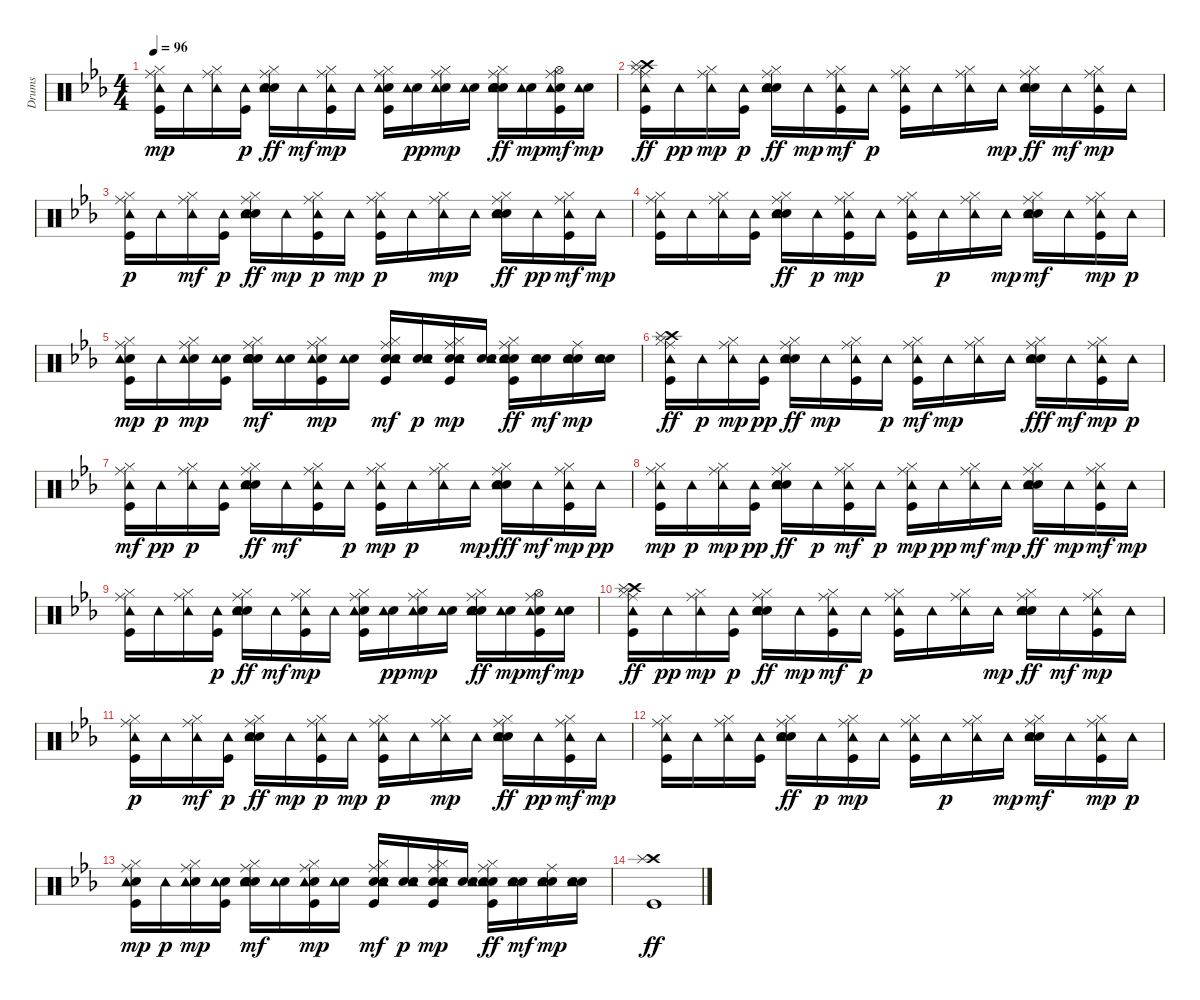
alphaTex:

\track ("Drums" "Drums") {instrument percussion}
\staff {score}
\articulation defaults
\ts (4 4)
\tempo 96
\clef neutral
\ks eb
("Kick (hit)" "Hi-Hat (closed)" "Ride (middle)" "Tambourine (hit)").16{dy mp} "Tambourine (hit)".16 ("Hi-Hat (closed)" "Ride (middle)" "Tambourine (hit)").16 ("Kick (hit)" "Tambourine (hit)").16{dy p} ("Snare (hit) 2" "Hand Clap (hit)" "Hi-Hat (closed)" "Ride (middle)" "Tambourine (hit)").16{dy ff} "Tambourine (hit)".16{dy mf} ("Kick (hit)" "Hi-Hat (closed)" "Ride (middle)" "Tambourine (hit)").16{dy mp} "Tambourine (hit)".16 ("Kick (hit)" "Electric Snare (hit)" "Hi-Hat (closed)" "Ride (middle)" "Tambourine (hit)").16 ("Electric Snare (hit)" "Tambourine (hit)").16{dy pp} ("Electric Snare (hit)" "Hi-Hat (closed)" "Ride (middle)" "Tambourine (hit)").16{dy mp} ("Electric Snare (hit)" "Tambourine (hit)").16 ("Snare (hit) 2" "Hand Clap (hit)" "Electric Snare (hit)" "Hi-Hat (closed)" "Ride (middle)" "Tambourine (hit)").16{dy ff} ("Electric Snare (hit)" "Tambourine (hit)").16{dy mp} ("Kick (hit)" "Electric Snare (hit)" "Hi-Hat (open)" "Ride (middle)" "Tambourine (hit)").16{dy mf} ("Electric Snare (hit)" "Tambourine (hit)").16{dy mp} |
("Kick (hit)" "Hi-Hat (closed)" "Crash high (hit)" "Ride (middle)" "Tambourine (hit)" "Splash (hit)").16{dy ff} "Tambourine (hit)".16{dy pp} ("Hi-Hat (closed)" "Ride (middle)" "Tambourine (hit)").16{dy mp} ("Kick (hit)" "Tambourine (hit)").16{dy p} ("Snare (hit) 2" "Hand Clap (hit)" "Hi-Hat (closed)" "Ride (middle)" "Tambourine (hit)").16{dy ff} "Tambourine (hit)".16{dy mp} ("Kick (hit)" "Hi-Hat (closed)" "Ride (middle)" "Tambourine (hit)").16{dy mf} "Tambourine (hit)".16{dy p} ("Kick (hit)" "Hi-Hat (closed)" "Ride (middle)" "Tambourine (hit)").16 "Tambourine (hit)".16 ("Hi-Hat (closed)" "Ride (middle)" "Tambourine (hit)").16 "Tambourine (hit)".16{dy mp} ("Snare (hit) 2" "Hand Clap (hit)" "Hi-Hat (closed)" "Ride (middle)" "Tambourine (hit)").16{dy ff} "Tambourine (hit)".16{dy mf} ("Kick (hit)" "Hi-Hat (closed)" "Ride (middle)" "Tambourine (hit)").16{dy mp} "Tambourine (hit)".16 |
("Kick (hit)" "Hi-Hat (closed)" "Ride (middle)" "Tambourine (hit)").16{dy p} "Tambourine (hit)".16 ("Hi-Hat (closed)" "Ride (middle)" "Tambourine (hit)").16{dy mf} ("Kick (hit)" "Tambourine (hit)").16{dy p} ("Snare (hit) 2" "Hand Clap (hit)" "Hi-Hat (closed)" "Ride (middle)" "Tambourine (hit)").16{dy ff} "Tambourine (hit)".16{dy mp} ("Kick (hit)" "Hi-Hat (closed)" "Ride (middle)" "Tambourine (hit)").16{dy p} "Tambourine (hit)".16{dy mp} ("Kick (hit)" "Hi-Hat (closed)" "Ride (middle)" "Tambourine (hit)").16{dy p} "Tambourine (hit)".16 ("Hi-Hat (closed)" "Ride (middle)" "Tambourine (hit)").16{dy mp} "Tambourine (hit)".16 ("Snare (hit) 2" "Hand Clap (hit)" "Hi-Hat (closed)" "Ride (middle)" "Tambourine (hit)").16{dy ff} "Tambourine (hit)".16{dy pp} ("Kick (hit)" "Hi-Hat (closed)" "Ride (middle)" "Tambourine (hit)").16{dy mf} "Tambourine (hit)".16{dy mp} |
("Kick (hit)" "Hi-Hat (closed)" "Ride (middle)" "Tambourine (hit)").16 "Tambourine (hit)".16 ("Hi-Hat (closed)" "Ride (middle)" "Tambourine (hit)").16 ("Kick (hit)" "Tambourine (hit)").16 ("Snare (hit) 2" "Hand Clap (hit)" "Hi-Hat (closed)" "Ride (middle)" "Tambourine (hit)").16{dy ff} "Tambourine (hit)".16{dy p} ("Kick (hit)" "Hi-Hat (closed)" "Ride (middle)" "Tambourine (hit)").16{dy mp} "Tambourine (hit)".16 ("Kick (hit)" "Hi-Hat (closed)" "Ride (middle)" "Tambourine (hit)").16 "Tambourine (hit)".16{dy p} ("Hi-Hat (closed)" "Ride (middle)" "Tambourine (hit)").16 "Tambourine (hit)".16{dy mp} ("Snare (hit) 2" "Hand Clap (hit)" "Hi-Hat (closed)" "Ride (middle)" "Tambourine (hit)").16{dy mf} "Tambourine (hit)".16 ("Kick (hit)" "Hi-Hat (closed)" "Ride (middle)" "Tambourine (hit)").16{dy mp} "Tambourine (hit)".16{dy p} |
("Kick (hit)" "Electric Snare (hit)" "Hi-Hat (closed)" "Ride (middle)" "Tambourine (hit)").16{dy mp} "Tambourine (hit)".16{dy p} ("Electric Snare (hit)" "Hi-Hat (closed)" "Ride (middle)" "Tambourine (hit)").16{dy mp} ("Kick (hit)" "Electric Snare (hit)" "Tambourine (hit)").16 ("Snare (hit) 2" "Hand Clap (hit)" "Electric Snare (hit)" "Hi-Hat (closed)" "Ride (middle)" "Tambourine (hit)").16{dy mf} ("Electric Snare (hit)" "Tambourine (hit)").16 ("Kick (hit)" "Electric Snare (hit)" "Hi-Hat (closed)" "Ride (middle)" "Tambourine (hit)").16{dy mp} ("Electric Snare (hit)" "Tambourine (hit)").16 ("Kick (hit)" "Snare (hit) 2" "Electric Snare (hit)" "Hi-Hat (closed)" "Ride (middle)" "Tambourine (hit)").16{dy mf} ("Snare (hit) 2" "Electric Snare (hit)" "Tambourine (hit)").16{dy p} ("Kick (hit)" "Snare (hit) 2" "Electric Snare (hit)" "Hi-Hat (closed)" "Ride (middle)" "Tambourine (hit)").16{dy mp} ("Snare (hit) 2" "Electric Snare (hit)" "Tambourine (hit)").16 ("Kick (hit)" "Snare (hit) 2" "Electric Snare (hit)" "Hi-Hat (closed)" "Ride (middle)" "Tambourine (hit)").16{dy ff} ("Snare (hit) 2" "Electric Snare (hit)" "Tambourine (hit)").16{dy mf} ("Snare (hit) 2" "Electric Snare (hit)" "Ride (middle)" "Tambourine (hit)").16{dy mp} ("Snare (hit) 2" "Electric Snare (hit)" "Tambourine (hit)").16 |
("Kick (hit)" "Hi-Hat (closed)" "Crash high (hit)" "Ride (middle)" "Tambourine (hit)" "Splash (hit)").16{dy ff} "Tambourine (hit)".16{dy p} ("Hi-Hat (closed)" "Ride (middle)" "Tambourine (hit)").16{dy mp} ("Kick (hit)" "Tambourine (hit)").16{dy pp} ("Snare (hit) 2" "Hand Clap (hit)" "Hi-Hat (closed)" "Ride (middle)" "Tambourine (hit)").16{dy ff} "Tambourine (hit)".16{dy mp} ("Kick (hit)" "Hi-Hat (closed)" "Ride (middle)" "Tambourine (hit)").16 "Tambourine (hit)".16{dy p} ("Kick (hit)" "Hi-Hat (closed)" "Ride (middle)" "Tambourine (hit)").16{dy mf} "Tambourine (hit)".16{dy mp} ("Hi-Hat (closed)" "Ride (middle)" "Tambourine (hit)").16 "Tambourine (hit)".16 ("Snare (hit) 2" "Hand Clap (hit)" "Hi-Hat (closed)" "Ride (middle)" "Tambourine (hit)").16{dy fff} "Tambourine (hit)".16{dy mf} ("Kick (hit)" "Hi-Hat (closed)" "Ride (middle)" "Tambourine (hit)").16{dy mp} "Tambourine (hit)".16{dy p} |
("Kick (hit)" "Hi-Hat (closed)" "Ride (middle)" "Tambourine (hit)").16{dy mf} "Tambourine (hit)".16{dy pp} ("Hi-Hat (closed)" "Ride (middle)" "Tambourine (hit)").16{dy p} ("Kick (hit)" "Tambourine (hit)").16 ("Snare (hit) 2" "Hand Clap (hit)" "Hi-Hat (closed)" "Ride (middle)" "Tambourine (hit)").16{dy ff} "Tambourine (hit)".16{dy mf} ("Kick (hit)" "Hi-Hat (closed)" "Ride (middle)" "Tambourine (hit)").16 "Tambourine (hit)".16{dy p} ("Kick (hit)" "Hi-Hat (closed)" "Ride (middle)" "Tambourine (hit)").16{dy mp} "Tambourine (hit)".16{dy p} ("Hi-Hat (closed)" "Ride (middle)" "Tambourine (hit)").16 "Tambourine (hit)".16{dy mp} ("Snare (hit) 2" "Hand Clap (hit)" "Hi-Hat (closed)" "Ride (middle)" "Tambourine (hit)").16{dy fff} "Tambourine (hit)".16{dy mf} ("Kick (hit)" "Hi-Hat (closed)" "Ride (middle)" "Tambourine (hit)").16{dy mp} "Tambourine (hit)".16{dy pp} |
("Kick (hit)" "Hi-Hat (closed)" "Ride (middle)" "Tambourine (hit)").16{dy mp} "Tambourine (hit)".16{dy p} ("Hi-Hat (closed)" "Ride (middle)" "Tambourine (hit)").16{dy mp} ("Kick (hit)" "Tambourine (hit)").16{dy pp} ("Snare (hit) 2" "Hand Clap (hit)" "Hi-Hat (closed)" "Ride (middle)" "Tambourine (hit)").16{dy ff} "Tambourine (hit)".16{dy p} ("Kick (hit)" "Hi-Hat (closed)" "Ride (middle)" "Tambourine (hit)").16{dy mf} "Tambourine (hit)".16{dy p} ("Kick (hit)" "Hi-Hat (closed)" "Ride (middle)" "Tambourine (hit)").16{dy mp} "Tambourine (hit)".16{dy pp} ("Hi-Hat (closed)" "Ride (middle)" "Tambourine (hit)").16{dy mf} "Tambourine (hit)".16{dy mp} ("Snare (hit) 2" "Hand Clap (hit)" "Hi-Hat (closed)" "Ride (middle)" "Tambourine (hit)").16{dy ff} "Tambourine (hit)".16{dy mp} ("Kick (hit)" "Hi-Hat (closed)" "Ride (middle)" "Tambourine (hit)").16{dy mf} "Tambourine (hit)".16{dy mp} |
("Kick (hit)" "Hi-Hat (closed)" "Ride (middle)" "Tambourine (hit)").16 "Tambourine (hit)".16 ("Hi-Hat (closed)" "Ride (middle)" "Tambourine (hit)").16 ("Kick (hit)" "Tambourine (hit)").16{dy p} ("Snare (hit) 2" "Hand Clap (hit)" "Hi-Hat (closed)" "Ride (middle)" "Tambourine (hit)").16{dy ff} "Tambourine (hit)".16{dy mf} ("Kick (hit)" "Hi-Hat (closed)" "Ride (middle)" "Tambourine (hit)").16{dy mp} "Tambourine (hit)".16 ("Kick (hit)" "Electric Snare (hit)" "Hi-Hat (closed)" "Ride (middle)" "Tambourine (hit)").16 ("Electric Snare (hit)" "Tambourine (hit)").16{dy pp} ("Electric Snare (hit)" "Hi-Hat (closed)" "Ride (middle)" "Tambourine (hit)").16{dy mp} ("Electric Snare (hit)" "Tambourine (hit)").16 ("Snare (hit) 2" "Hand Clap (hit)" "Electric Snare (hit)" "Hi-Hat (closed)" "Ride (middle)" "Tambourine (hit)").16{dy ff} ("Electric Snare (hit)" "Tambourine (hit)").16{dy mp} ("Kick (hit)" "Electric Snare (hit)" "Hi-Hat (open)" "Ride (middle)" "Tambourine (hit)").16{dy mf} ("Electric Snare (hit)" "Tambourine (hit)").16{dy mp} |
("Kick (hit)" "Hi-Hat (closed)" "Crash high (hit)" "Ride (middle)" "Tambourine (hit)" "Splash (hit)").16{dy ff} "Tambourine (hit)".16{dy pp} ("Hi-Hat (closed)" "Ride (middle)" "Tambourine (hit)").16{dy mp} ("Kick (hit)" "Tambourine (hit)").16{dy p} ("Snare (hit) 2" "Hand Clap (hit)" "Hi-Hat (closed)" "Ride (middle)" "Tambourine (hit)").16{dy ff} "Tambourine (hit)".16{dy mp} ("Kick (hit)" "Hi-Hat (closed)" "Ride (middle)" "Tambourine (hit)").16{dy mf} "Tambourine (hit)".16{dy p} ("Kick (hit)" "Hi-Hat (closed)" "Ride (middle)" "Tambourine (hit)").16 "Tambourine (hit)".16 ("Hi-Hat (closed)" "Ride (middle)" "Tambourine (hit)").16 "Tambourine (hit)".16{dy mp} ("Snare (hit) 2" "Hand Clap (hit)" "Hi-Hat (closed)" "Ride (middle)" "Tambourine (hit)").16{dy ff} "Tambourine (hit)".16{dy mf} ("Kick (hit)" "Hi-Hat (closed)" "Ride (middle)" "Tambourine (hit)").16{dy mp} "Tambourine (hit)".16 |
("Kick (hit)" "Hi-Hat (closed)" "Ride (middle)" "Tambourine (hit)").16{dy p} "Tambourine (hit)".16 ("Hi-Hat (closed)" "Ride (middle)" "Tambourine (hit)").16{dy mf} ("Kick (hit)" "Tambourine (hit)").16{dy p} ("Snare (hit) 2" "Hand Clap (hit)" "Hi-Hat (closed)" "Ride (middle)" "Tambourine (hit)").16{dy ff} "Tambourine (hit)".16{dy mp} ("Kick (hit)" "Hi-Hat (closed)" "Ride (middle)" "Tambourine (hit)").16{dy p} "Tambourine (hit)".16{dy mp} ("Kick (hit)" "Hi-Hat (closed)" "Ride (middle)" "Tambourine (hit)").16{dy p} "Tambourine (hit)".16 ("Hi-Hat (closed)" "Ride (middle)" "Tambourine (hit)").16{dy mp} "Tambourine (hit)".16 ("Snare (hit) 2" "Hand Clap (hit)" "Hi-Hat (closed)" "Ride (middle)" "Tambourine (hit)").16{dy ff} "Tambourine (hit)".16{dy pp} ("Kick (hit)" "Hi-Hat (closed)" "Ride (middle)" "Tambourine (hit)").16{dy mf} "Tambourine (hit)".16{dy mp} |
("Kick (hit)" "Hi-Hat (closed)" "Ride (middle)" "Tambourine (hit)").16 "Tambourine (hit)".16 ("Hi-Hat (closed)" "Ride (middle)" "Tambourine (hit)").16 ("Kick (hit)" "Tambourine (hit)").16 ("Snare (hit) 2" "Hand Clap (hit)" "Hi-Hat (closed)" "Ride (middle)" "Tambourine (hit)").16{dy ff} "Tambourine (hit)".16{dy p} ("Kick (hit)" "Hi-Hat (closed)" "Ride (middle)" "Tambourine (hit)").16{dy mp} "Tambourine (hit)".16 ("Kick (hit)" "Hi-Hat (closed)" "Ride (middle)" "Tambourine (hit)").16 "Tambourine (hit)".16{dy p} ("Hi-Hat (closed)" "Ride (middle)" "Tambourine (hit)").16 "Tambourine (hit)".16{dy mp} ("Snare (hit) 2" "Hand Clap (hit)" "Hi-Hat (closed)" "Ride (middle)" "Tambourine (hit)").16{dy mf} "Tambourine (hit)".16 ("Kick (hit)" "Hi-Hat (closed)" "Ride (middle)" "Tambourine (hit)").16{dy mp} "Tambourine (hit)".16{dy p} |
("Kick (hit)" "Electric Snare (hit)" "Hi-Hat (closed)" "Ride (middle)" "Tambourine (hit)").16{dy mp} "Tambourine (hit)".16{dy p} ("Electric Snare (hit)" "Hi-Hat (closed)" "Ride (middle)" "Tambourine (hit)").16{dy mp} ("Kick (hit)" "Electric Snare (hit)" "Tambourine (hit)").16 ("Snare (hit) 2" "Hand Clap (hit)" "Electric Snare (hit)" "Hi-Hat (closed)" "Ride (middle)" "Tambourine (hit)").16{dy mf} ("Electric Snare (hit)" "Tambourine (hit)").16 ("Kick (hit)" "Electric Snare (hit)" "Hi-Hat (closed)" "Ride (middle)" "Tambourine (hit)").16{dy mp} ("Electric Snare (hit)" "Tambourine (hit)").16 ("Kick (hit)" "Snare (hit) 2" "Electric Snare (hit)" "Hi-Hat (closed)" "Ride (middle)" "Tambourine (hit)").16{dy mf} ("Snare (hit) 2" "Electric Snare (hit)" "Tambourine (hit)").16{dy p} ("Kick (hit)" "Snare (hit) 2" "Electric Snare (hit)" "Hi-Hat (closed)" "Ride (middle)" "Tambourine (hit)").16{dy mp} ("Snare (hit) 2" "Electric Snare (hit)" "Tambourine (hit)").16 ("Kick (hit)" "Snare (hit) 2" "Electric Snare (hit)" "Hi-Hat (closed)" "Ride (middle)" "Tambourine (hit)").16{dy ff} ("Snare (hit) 2" "Electric Snare (hit)" "Tambourine (hit)").16{dy mf} ("Snare (hit) 2" "Electric Snare (hit)" "Ride (middle)" "Tambourine (hit)").16{dy mp} ("Snare (hit) 2" "Electric Snare (hit)" "Tambourine (hit)").16 |
("Kick (hit)" "Crash high (hit)" "Splash (hit)").1{dy ff}
